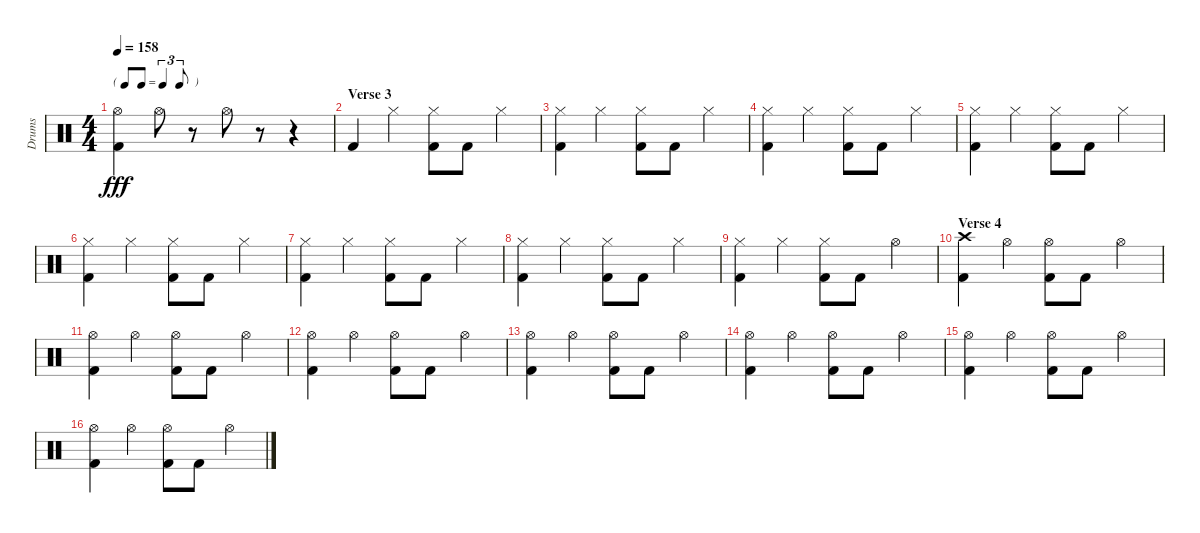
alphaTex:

\track ("Drums" "Drums") {instrument percussion}
\staff {score}
\articulation defaults
\ts (4 4)
\tf triplet8th
\tempo 158
\clef neutral
\ks c
("Hi-Hat (open)" "Kick (hit) 2").4{dy fff} "Hi-Hat (open)".8 r.8 "Hi-Hat (open)".8 r.8 r.4 |
\section ("" "Verse 3")
"Kick (hit) 2".4 "Hi-Hat (closed)".4 ("Hi-Hat (closed)" "Kick (hit) 2").8 "Kick (hit) 2".8 "Hi-Hat (closed)".4 |
("Hi-Hat (closed)" "Kick (hit) 2").4 "Hi-Hat (closed)".4 ("Hi-Hat (closed)" "Kick (hit) 2").8 "Kick (hit) 2".8 "Hi-Hat (closed)".4 |
("Hi-Hat (closed)" "Kick (hit) 2").4 "Hi-Hat (closed)".4 ("Hi-Hat (closed)" "Kick (hit) 2").8 "Kick (hit) 2".8 "Hi-Hat (closed)".4 |
("Hi-Hat (closed)" "Kick (hit) 2").4 "Hi-Hat (closed)".4 ("Hi-Hat (closed)" "Kick (hit) 2").8 "Kick (hit) 2".8 "Hi-Hat (closed)".4 |
("Hi-Hat (closed)" "Kick (hit) 2").4 "Hi-Hat (closed)".4 ("Hi-Hat (closed)" "Kick (hit) 2").8 "Kick (hit) 2".8 "Hi-Hat (closed)".4 |
("Hi-Hat (closed)" "Kick (hit) 2").4 "Hi-Hat (closed)".4 ("Hi-Hat (closed)" "Kick (hit) 2").8 "Kick (hit) 2".8 "Hi-Hat (closed)".4 |
("Hi-Hat (closed)" "Kick (hit) 2").4 "Hi-Hat (closed)".4 ("Hi-Hat (closed)" "Kick (hit) 2").8 "Kick (hit) 2".8 "Hi-Hat (closed)".4 |
("Hi-Hat (closed)" "Kick (hit) 2").4 "Hi-Hat (closed)".4 ("Hi-Hat (closed)" "Kick (hit) 2").8 "Kick (hit) 2".8 "Hi-Hat (open)".4 |
\section ("" "Verse 4")
("Crash high (hit)" "Kick (hit) 2").4 "Hi-Hat (open)".4 ("Hi-Hat (open)" "Kick (hit) 2").8 "Kick (hit) 2".8 "Hi-Hat (open)".4 |
("Hi-Hat (open)" "Kick (hit) 2").4 "Hi-Hat (open)".4 ("Hi-Hat (open)" "Kick (hit) 2").8 "Kick (hit) 2".8 "Hi-Hat (open)".4 |
("Hi-Hat (open)" "Kick (hit) 2").4 "Hi-Hat (open)".4 ("Hi-Hat (open)" "Kick (hit) 2").8 "Kick (hit) 2".8 "Hi-Hat (open)".4 |
("Hi-Hat (open)" "Kick (hit) 2").4 "Hi-Hat (open)".4 ("Hi-Hat (open)" "Kick (hit) 2").8 "Kick (hit) 2".8 "Hi-Hat (open)".4 |
("Hi-Hat (open)" "Kick (hit) 2").4 "Hi-Hat (open)".4 ("Hi-Hat (open)" "Kick (hit) 2").8 "Kick (hit) 2".8 "Hi-Hat (open)".4 |
("Hi-Hat (open)" "Kick (hit) 2").4 "Hi-Hat (open)".4 ("Hi-Hat (open)" "Kick (hit) 2").8 "Kick (hit) 2".8 "Hi-Hat (open)".4 |
("Hi-Hat (open)" "Kick (hit) 2").4 "Hi-Hat (open)".4 ("Hi-Hat (open)" "Kick (hit) 2").8 "Kick (hit) 2".8 "Hi-Hat (open)".4
